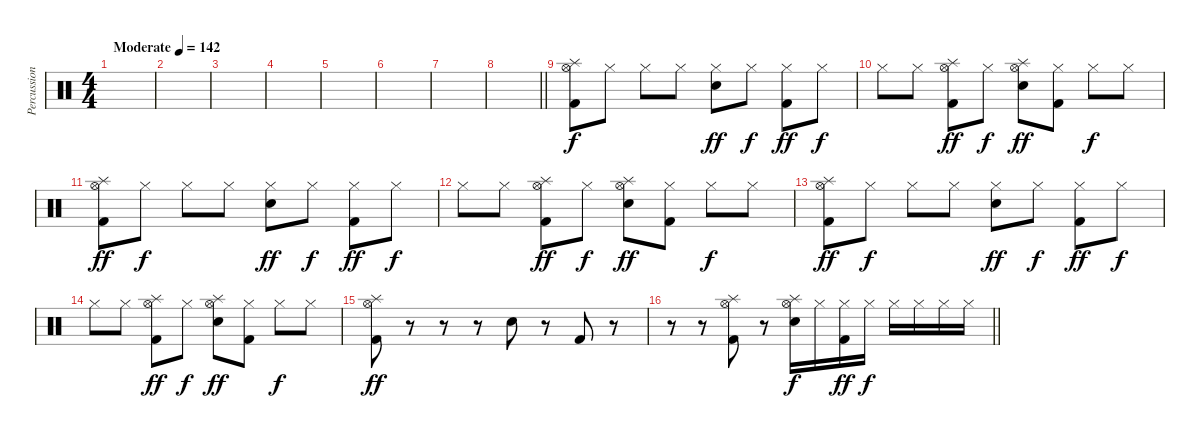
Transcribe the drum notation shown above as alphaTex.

\track ("Percussion" "Percussion") {instrument percussion}
\staff {score}
\articulation defaults
\ts (4 4)
\tempo (142 "Moderate")
\clef neutral
\ks c
|
|
|
|
|
|
|
\barLineRight lightlight
|
("Hi-Hat (open)" "Splash (hit)" "Kick (hit) 2").8 "Hi-Hat (closed)".8{dy f} "Hi-Hat (closed)".8 "Hi-Hat (closed)".8 ("Hi-Hat (closed)" "Snare (hit) 2").8{dy ff} "Hi-Hat (closed)".8{dy f} ("Hi-Hat (closed)" "Kick (hit) 2").8{dy ff} "Hi-Hat (closed)".8{dy f} |
"Hi-Hat (closed)".8 "Hi-Hat (closed)".8 ("Hi-Hat (open)" "Splash (hit)" "Kick (hit) 2").8{dy ff} "Hi-Hat (closed)".8{dy f} ("Hi-Hat (open)" "Splash (hit)" "Snare (hit) 2").8{dy ff} ("Hi-Hat (closed)" "Kick (hit) 2").8 "Hi-Hat (closed)".8{dy f} "Hi-Hat (closed)".8 |
("Hi-Hat (open)" "Splash (hit)" "Kick (hit) 2").8{dy ff} "Hi-Hat (closed)".8{dy f} "Hi-Hat (closed)".8 "Hi-Hat (closed)".8 ("Hi-Hat (closed)" "Snare (hit) 2").8{dy ff} "Hi-Hat (closed)".8{dy f} ("Hi-Hat (closed)" "Kick (hit) 2").8{dy ff} "Hi-Hat (closed)".8{dy f} |
"Hi-Hat (closed)".8 "Hi-Hat (closed)".8 ("Hi-Hat (open)" "Splash (hit)" "Kick (hit) 2").8{dy ff} "Hi-Hat (closed)".8{dy f} ("Hi-Hat (open)" "Splash (hit)" "Snare (hit) 2").8{dy ff} ("Hi-Hat (closed)" "Kick (hit) 2").8 "Hi-Hat (closed)".8{dy f} "Hi-Hat (closed)".8 |
("Hi-Hat (open)" "Splash (hit)" "Kick (hit) 2").8{dy ff} "Hi-Hat (closed)".8{dy f} "Hi-Hat (closed)".8 "Hi-Hat (closed)".8 ("Hi-Hat (closed)" "Snare (hit) 2").8{dy ff} "Hi-Hat (closed)".8{dy f} ("Hi-Hat (closed)" "Kick (hit) 2").8{dy ff} "Hi-Hat (closed)".8{dy f} |
"Hi-Hat (closed)".8 "Hi-Hat (closed)".8 ("Hi-Hat (open)" "Splash (hit)" "Kick (hit) 2").8{dy ff} "Hi-Hat (closed)".8{dy f} ("Hi-Hat (open)" "Splash (hit)" "Snare (hit) 2").8{dy ff} ("Hi-Hat (closed)" "Kick (hit) 2").8 "Hi-Hat (closed)".8{dy f} "Hi-Hat (closed)".8 |
("Hi-Hat (open)" "Splash (hit)" "Kick (hit) 2").8{dy ff} r.8 r.8 r.8 "Snare (hit) 2".8 r.8 "Kick (hit) 2".8 r.8 |
\barLineRight lightlight
r.8 r.8 ("Hi-Hat (open)" "Splash (hit)" "Kick (hit) 2").8 r.8 ("Hi-Hat (open)" "Splash (hit)" "Snare (hit) 2").16{dy f} "Hi-Hat (closed)".16 ("Hi-Hat (closed)" "Kick (hit) 2").16{dy ff} "Hi-Hat (closed)".16{dy f} "Hi-Hat (closed)".16 "Hi-Hat (closed)".16 "Hi-Hat (closed)".16 "Hi-Hat (closed)".16
